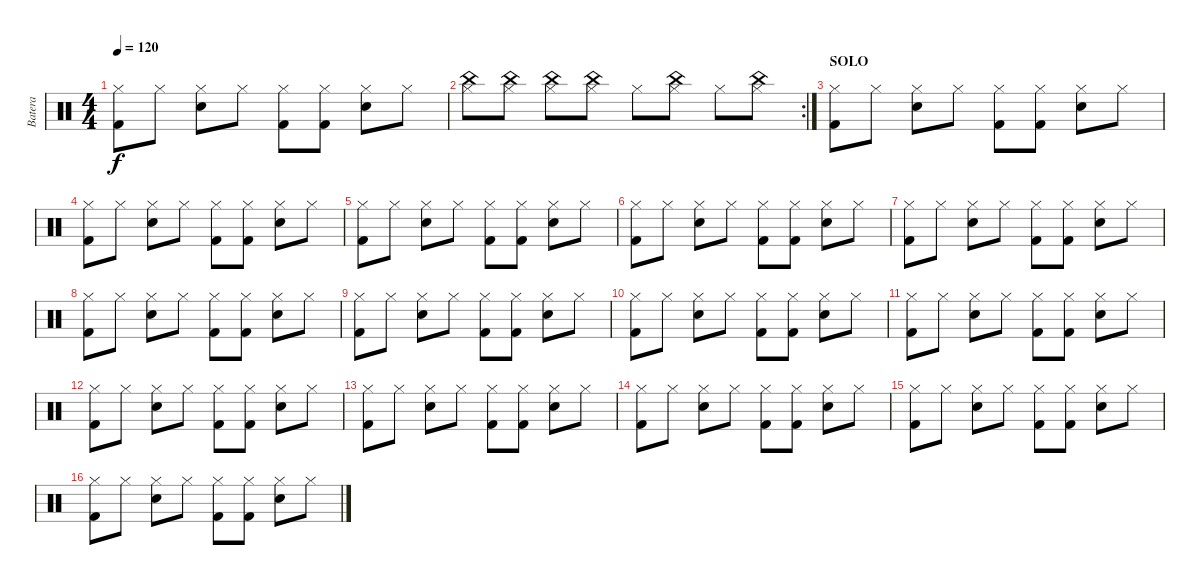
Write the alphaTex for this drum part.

\track ("Batera" "Batera") {instrument percussion}
\staff {score}
\articulation defaults
\ts (4 4)
\tempo 120
\clef neutral
\ks c
("Hi-Hat (closed)" "Kick (hit) 2").8{dy f} "Hi-Hat (closed)".8 ("Hi-Hat (closed)" "Snare (hit) 2").8 "Hi-Hat (closed)".8 ("Hi-Hat (closed)" "Kick (hit) 2").8 ("Hi-Hat (closed)" "Kick (hit) 2").8 ("Hi-Hat (closed)" "Snare (hit) 2").8 "Hi-Hat (closed)".8 |
\rc 2
("Hi-Hat (closed)" "China (hit)").8 ("Hi-Hat (closed)" "China (hit)").8 ("Hi-Hat (closed)" "China (hit)").8 ("Hi-Hat (closed)" "China (hit)").8 "Hi-Hat (closed)".8 ("Hi-Hat (closed)" "China (hit)").8 "Hi-Hat (closed)".8 ("Hi-Hat (closed)" "China (hit)").8 |
\section ("" "SOLO")
("Hi-Hat (closed)" "Kick (hit) 2").8 "Hi-Hat (closed)".8 ("Hi-Hat (closed)" "Snare (hit) 2").8 "Hi-Hat (closed)".8 ("Hi-Hat (closed)" "Kick (hit) 2").8 ("Hi-Hat (closed)" "Kick (hit) 2").8 ("Hi-Hat (closed)" "Snare (hit) 2").8 "Hi-Hat (closed)".8 |
("Hi-Hat (closed)" "Kick (hit) 2").8 "Hi-Hat (closed)".8 ("Hi-Hat (closed)" "Snare (hit) 2").8 "Hi-Hat (closed)".8 ("Hi-Hat (closed)" "Kick (hit) 2").8 ("Hi-Hat (closed)" "Kick (hit) 2").8 ("Hi-Hat (closed)" "Snare (hit) 2").8 "Hi-Hat (closed)".8 |
("Hi-Hat (closed)" "Kick (hit) 2").8 "Hi-Hat (closed)".8 ("Hi-Hat (closed)" "Snare (hit) 2").8 "Hi-Hat (closed)".8 ("Hi-Hat (closed)" "Kick (hit) 2").8 ("Hi-Hat (closed)" "Kick (hit) 2").8 ("Hi-Hat (closed)" "Snare (hit) 2").8 "Hi-Hat (closed)".8 |
("Hi-Hat (closed)" "Kick (hit) 2").8 "Hi-Hat (closed)".8 ("Hi-Hat (closed)" "Snare (hit) 2").8 "Hi-Hat (closed)".8 ("Hi-Hat (closed)" "Kick (hit) 2").8 ("Hi-Hat (closed)" "Kick (hit) 2").8 ("Hi-Hat (closed)" "Snare (hit) 2").8 "Hi-Hat (closed)".8 |
("Hi-Hat (closed)" "Kick (hit) 2").8 "Hi-Hat (closed)".8 ("Hi-Hat (closed)" "Snare (hit) 2").8 "Hi-Hat (closed)".8 ("Hi-Hat (closed)" "Kick (hit) 2").8 ("Hi-Hat (closed)" "Kick (hit) 2").8 ("Hi-Hat (closed)" "Snare (hit) 2").8 "Hi-Hat (closed)".8 |
("Hi-Hat (closed)" "Kick (hit) 2").8 "Hi-Hat (closed)".8 ("Hi-Hat (closed)" "Snare (hit) 2").8 "Hi-Hat (closed)".8 ("Hi-Hat (closed)" "Kick (hit) 2").8 ("Hi-Hat (closed)" "Kick (hit) 2").8 ("Hi-Hat (closed)" "Snare (hit) 2").8 "Hi-Hat (closed)".8 |
("Hi-Hat (closed)" "Kick (hit) 2").8 "Hi-Hat (closed)".8 ("Hi-Hat (closed)" "Snare (hit) 2").8 "Hi-Hat (closed)".8 ("Hi-Hat (closed)" "Kick (hit) 2").8 ("Hi-Hat (closed)" "Kick (hit) 2").8 ("Hi-Hat (closed)" "Snare (hit) 2").8 "Hi-Hat (closed)".8 |
("Hi-Hat (closed)" "Kick (hit) 2").8 "Hi-Hat (closed)".8 ("Hi-Hat (closed)" "Snare (hit) 2").8 "Hi-Hat (closed)".8 ("Hi-Hat (closed)" "Kick (hit) 2").8 ("Hi-Hat (closed)" "Kick (hit) 2").8 ("Hi-Hat (closed)" "Snare (hit) 2").8 "Hi-Hat (closed)".8 |
("Hi-Hat (closed)" "Kick (hit) 2").8 "Hi-Hat (closed)".8 ("Hi-Hat (closed)" "Snare (hit) 2").8 "Hi-Hat (closed)".8 ("Hi-Hat (closed)" "Kick (hit) 2").8 ("Hi-Hat (closed)" "Kick (hit) 2").8 ("Hi-Hat (closed)" "Snare (hit) 2").8 "Hi-Hat (closed)".8 |
("Hi-Hat (closed)" "Kick (hit) 2").8 "Hi-Hat (closed)".8 ("Hi-Hat (closed)" "Snare (hit) 2").8 "Hi-Hat (closed)".8 ("Hi-Hat (closed)" "Kick (hit) 2").8 ("Hi-Hat (closed)" "Kick (hit) 2").8 ("Hi-Hat (closed)" "Snare (hit) 2").8 "Hi-Hat (closed)".8 |
("Hi-Hat (closed)" "Kick (hit) 2").8 "Hi-Hat (closed)".8 ("Hi-Hat (closed)" "Snare (hit) 2").8 "Hi-Hat (closed)".8 ("Hi-Hat (closed)" "Kick (hit) 2").8 ("Hi-Hat (closed)" "Kick (hit) 2").8 ("Hi-Hat (closed)" "Snare (hit) 2").8 "Hi-Hat (closed)".8 |
("Hi-Hat (closed)" "Kick (hit) 2").8 "Hi-Hat (closed)".8 ("Hi-Hat (closed)" "Snare (hit) 2").8 "Hi-Hat (closed)".8 ("Hi-Hat (closed)" "Kick (hit) 2").8 ("Hi-Hat (closed)" "Kick (hit) 2").8 ("Hi-Hat (closed)" "Snare (hit) 2").8 "Hi-Hat (closed)".8 |
("Hi-Hat (closed)" "Kick (hit) 2").8 "Hi-Hat (closed)".8 ("Hi-Hat (closed)" "Snare (hit) 2").8 "Hi-Hat (closed)".8 ("Hi-Hat (closed)" "Kick (hit) 2").8 ("Hi-Hat (closed)" "Kick (hit) 2").8 ("Hi-Hat (closed)" "Snare (hit) 2").8 "Hi-Hat (closed)".8 |
("Hi-Hat (closed)" "Kick (hit) 2").8 "Hi-Hat (closed)".8 ("Hi-Hat (closed)" "Snare (hit) 2").8 "Hi-Hat (closed)".8 ("Hi-Hat (closed)" "Kick (hit) 2").8 ("Hi-Hat (closed)" "Kick (hit) 2").8 ("Hi-Hat (closed)" "Snare (hit) 2").8 "Hi-Hat (closed)".8
